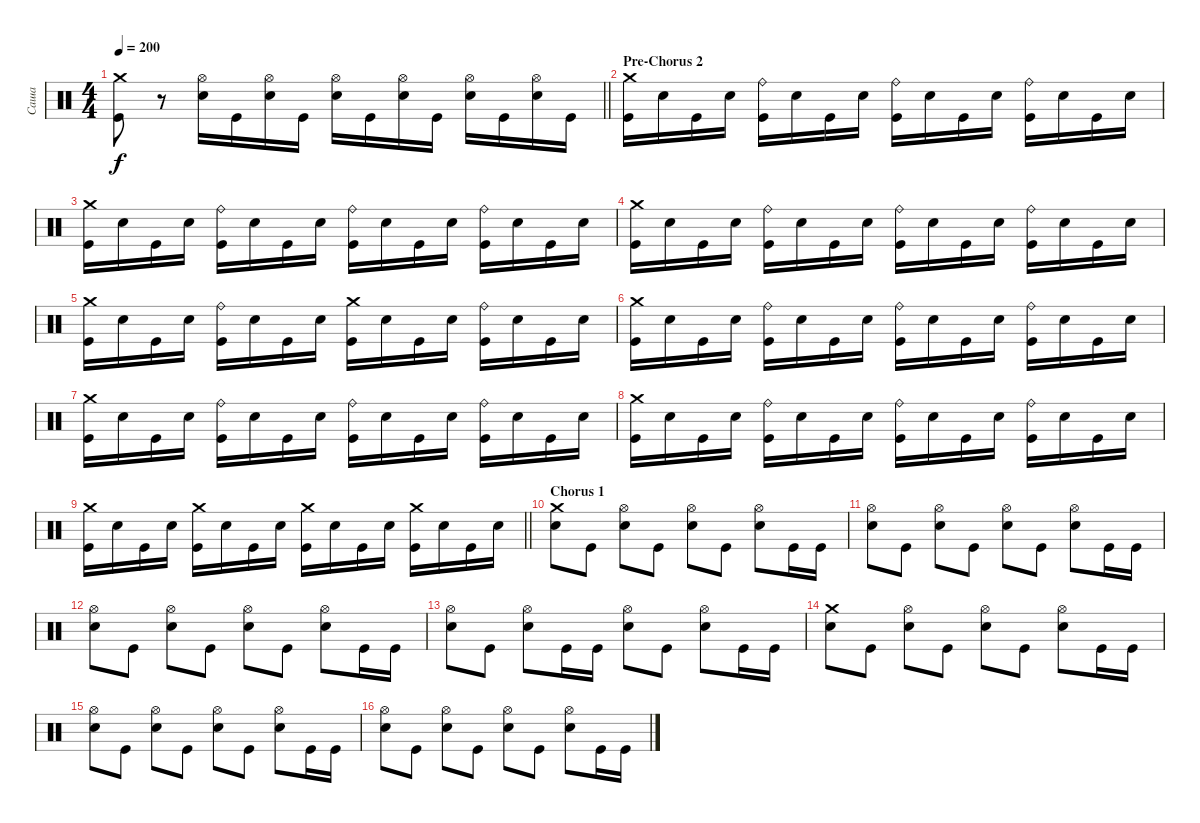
\track ("Саша" "Саша") {instrument percussion}
\staff {score}
\articulation defaults
\ts (4 4)
\tempo 200
\clef neutral
\barLineRight lightlight
\ks c
("Crash medium (hit)" "Kick (hit)").8{dy f} r.8 ("Hi-Hat (open)" "Electric Snare (hit)").16 "Kick (hit)".16 ("Hi-Hat (open)" "Electric Snare (hit)").16 "Kick (hit)".16 ("Hi-Hat (open)" "Electric Snare (hit)").16 "Kick (hit)".16 ("Hi-Hat (open)" "Electric Snare (hit)").16 "Kick (hit)".16 ("Hi-Hat (open)" "Electric Snare (hit)").16 "Kick (hit)".16 ("Hi-Hat (open)" "Electric Snare (hit)").16 "Kick (hit)".16 |
\section ("" "Pre-Chorus 2")
("Crash medium (hit)" "Kick (hit)").16 "Electric Snare (hit)".16 "Kick (hit)".16 "Electric Snare (hit)".16 ("Ride (bell)" "Kick (hit)").16 "Electric Snare (hit)".16 "Kick (hit)".16 "Electric Snare (hit)".16 ("Ride (bell)" "Kick (hit)").16 "Electric Snare (hit)".16 "Kick (hit)".16 "Electric Snare (hit)".16 ("Ride (bell)" "Kick (hit)").16 "Electric Snare (hit)".16 "Kick (hit)".16 "Electric Snare (hit)".16 |
("Crash medium (hit)" "Kick (hit)").16 "Electric Snare (hit)".16 "Kick (hit)".16 "Electric Snare (hit)".16 ("Ride (bell)" "Kick (hit)").16 "Electric Snare (hit)".16 "Kick (hit)".16 "Electric Snare (hit)".16 ("Ride (bell)" "Kick (hit)").16 "Electric Snare (hit)".16 "Kick (hit)".16 "Electric Snare (hit)".16 ("Ride (bell)" "Kick (hit)").16 "Electric Snare (hit)".16 "Kick (hit)".16 "Electric Snare (hit)".16 |
("Crash medium (hit)" "Kick (hit)").16 "Electric Snare (hit)".16 "Kick (hit)".16 "Electric Snare (hit)".16 ("Ride (bell)" "Kick (hit)").16 "Electric Snare (hit)".16 "Kick (hit)".16 "Electric Snare (hit)".16 ("Ride (bell)" "Kick (hit)").16 "Electric Snare (hit)".16 "Kick (hit)".16 "Electric Snare (hit)".16 ("Ride (bell)" "Kick (hit)").16 "Electric Snare (hit)".16 "Kick (hit)".16 "Electric Snare (hit)".16 |
("Crash medium (hit)" "Kick (hit)").16 "Electric Snare (hit)".16 "Kick (hit)".16 "Electric Snare (hit)".16 ("Ride (bell)" "Kick (hit)").16 "Electric Snare (hit)".16 "Kick (hit)".16 "Electric Snare (hit)".16 ("Crash medium (hit)" "Kick (hit)").16 "Electric Snare (hit)".16 "Kick (hit)".16 "Electric Snare (hit)".16 ("Ride (bell)" "Kick (hit)").16 "Electric Snare (hit)".16 "Kick (hit)".16 "Electric Snare (hit)".16 |
("Crash medium (hit)" "Kick (hit)").16 "Electric Snare (hit)".16 "Kick (hit)".16 "Electric Snare (hit)".16 ("Ride (bell)" "Kick (hit)").16 "Electric Snare (hit)".16 "Kick (hit)".16 "Electric Snare (hit)".16 ("Ride (bell)" "Kick (hit)").16 "Electric Snare (hit)".16 "Kick (hit)".16 "Electric Snare (hit)".16 ("Ride (bell)" "Kick (hit)").16 "Electric Snare (hit)".16 "Kick (hit)".16 "Electric Snare (hit)".16 |
("Crash medium (hit)" "Kick (hit)").16 "Electric Snare (hit)".16 "Kick (hit)".16 "Electric Snare (hit)".16 ("Ride (bell)" "Kick (hit)").16 "Electric Snare (hit)".16 "Kick (hit)".16 "Electric Snare (hit)".16 ("Ride (bell)" "Kick (hit)").16 "Electric Snare (hit)".16 "Kick (hit)".16 "Electric Snare (hit)".16 ("Ride (bell)" "Kick (hit)").16 "Electric Snare (hit)".16 "Kick (hit)".16 "Electric Snare (hit)".16 |
("Crash medium (hit)" "Kick (hit)").16 "Electric Snare (hit)".16 "Kick (hit)".16 "Electric Snare (hit)".16 ("Ride (bell)" "Kick (hit)").16 "Electric Snare (hit)".16 "Kick (hit)".16 "Electric Snare (hit)".16 ("Ride (bell)" "Kick (hit)").16 "Electric Snare (hit)".16 "Kick (hit)".16 "Electric Snare (hit)".16 ("Ride (bell)" "Kick (hit)").16 "Electric Snare (hit)".16 "Kick (hit)".16 "Electric Snare (hit)".16 |
\barLineRight lightlight
("Crash medium (hit)" "Kick (hit)").16 "Electric Snare (hit)".16 "Kick (hit)".16 "Electric Snare (hit)".16 ("Crash medium (hit)" "Kick (hit)").16 "Electric Snare (hit)".16 "Kick (hit)".16 "Electric Snare (hit)".16 ("Crash medium (hit)" "Kick (hit)").16 "Electric Snare (hit)".16 "Kick (hit)".16 "Electric Snare (hit)".16 ("Crash medium (hit)" "Kick (hit)").16 "Electric Snare (hit)".16 "Kick (hit)".16 "Electric Snare (hit)".16 |
\section ("" "Chorus 1")
("Crash medium (hit)" "Electric Snare (hit)").8 "Kick (hit)".8 ("Hi-Hat (open)" "Electric Snare (hit)").8 "Kick (hit)".8 ("Hi-Hat (open)" "Electric Snare (hit)").8 "Kick (hit)".8 ("Hi-Hat (open)" "Electric Snare (hit)").8 "Kick (hit)".16 "Kick (hit)".16 |
("Hi-Hat (open)" "Electric Snare (hit)").8 "Kick (hit)".8 ("Hi-Hat (open)" "Electric Snare (hit)").8 "Kick (hit)".8 ("Hi-Hat (open)" "Electric Snare (hit)").8 "Kick (hit)".8 ("Hi-Hat (open)" "Electric Snare (hit)").8 "Kick (hit)".16 "Kick (hit)".16 |
("Hi-Hat (open)" "Electric Snare (hit)").8 "Kick (hit)".8 ("Hi-Hat (open)" "Electric Snare (hit)").8 "Kick (hit)".8 ("Hi-Hat (open)" "Electric Snare (hit)").8 "Kick (hit)".8 ("Hi-Hat (open)" "Electric Snare (hit)").8 "Kick (hit)".16 "Kick (hit)".16 |
("Hi-Hat (open)" "Electric Snare (hit)").8 "Kick (hit)".8 ("Hi-Hat (open)" "Electric Snare (hit)").8 "Kick (hit)".16 "Kick (hit)".16 ("Hi-Hat (open)" "Electric Snare (hit)").8 "Kick (hit)".8 ("Hi-Hat (open)" "Electric Snare (hit)").8 "Kick (hit)".16 "Kick (hit)".16 |
("Crash medium (hit)" "Electric Snare (hit)").8 "Kick (hit)".8 ("Hi-Hat (open)" "Electric Snare (hit)").8 "Kick (hit)".8 ("Hi-Hat (open)" "Electric Snare (hit)").8 "Kick (hit)".8 ("Hi-Hat (open)" "Electric Snare (hit)").8 "Kick (hit)".16 "Kick (hit)".16 |
("Hi-Hat (open)" "Electric Snare (hit)").8 "Kick (hit)".8 ("Hi-Hat (open)" "Electric Snare (hit)").8 "Kick (hit)".8 ("Hi-Hat (open)" "Electric Snare (hit)").8 "Kick (hit)".8 ("Hi-Hat (open)" "Electric Snare (hit)").8 "Kick (hit)".16 "Kick (hit)".16 |
("Hi-Hat (open)" "Electric Snare (hit)").8 "Kick (hit)".8 ("Hi-Hat (open)" "Electric Snare (hit)").8 "Kick (hit)".8 ("Hi-Hat (open)" "Electric Snare (hit)").8 "Kick (hit)".8 ("Hi-Hat (open)" "Electric Snare (hit)").8 "Kick (hit)".16 "Kick (hit)".16
